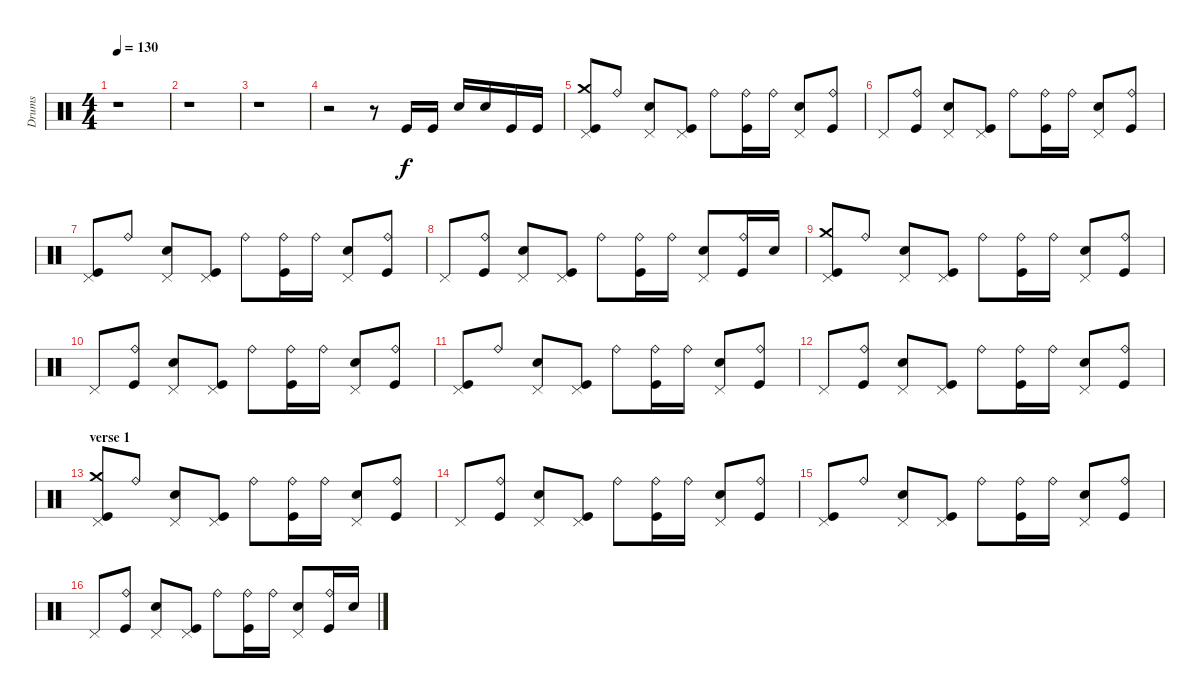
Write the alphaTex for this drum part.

\track ("Drums" "Drums") {instrument percussion}
\staff {score}
\articulation defaults
\ts (4 4)
\tempo 130
\clef neutral
\ks c
r.1{dy f} |
r.1 |
r.1 |
r.2 r.8 "Kick (hit)".16 "Kick (hit)".16 "Electric Snare (hit)".16 "Electric Snare (hit)".16 "Kick (hit)".16 "Kick (hit)".16 |
("Kick (hit)" "Crash medium (hit)" "Pedal Hi-Hat (hit)").8 "Ride (bell)".8 ("Electric Snare (hit)" "Pedal Hi-Hat (hit)").8 ("Kick (hit)" "Pedal Hi-Hat (hit)").8 "Ride (bell)".8 ("Kick (hit)" "Ride (bell)").16 "Ride (bell)".16 ("Electric Snare (hit)" "Pedal Hi-Hat (hit)").8 ("Kick (hit)" "Ride (bell)").8 |
"Pedal Hi-Hat (hit)".8 ("Kick (hit)" "Ride (bell)").8 ("Electric Snare (hit)" "Pedal Hi-Hat (hit)").8 ("Kick (hit)" "Pedal Hi-Hat (hit)").8 "Ride (bell)".8 ("Kick (hit)" "Ride (bell)").16 "Ride (bell)".16 ("Electric Snare (hit)" "Pedal Hi-Hat (hit)").8 ("Kick (hit)" "Ride (bell)").8 |
("Kick (hit)" "Pedal Hi-Hat (hit)").8 "Ride (bell)".8 ("Electric Snare (hit)" "Pedal Hi-Hat (hit)").8 ("Kick (hit)" "Pedal Hi-Hat (hit)").8 "Ride (bell)".8 ("Kick (hit)" "Ride (bell)").16 "Ride (bell)".16 ("Electric Snare (hit)" "Pedal Hi-Hat (hit)").8 ("Kick (hit)" "Ride (bell)").8 |
"Pedal Hi-Hat (hit)".8 ("Kick (hit)" "Ride (bell)").8 ("Electric Snare (hit)" "Pedal Hi-Hat (hit)").8 ("Kick (hit)" "Pedal Hi-Hat (hit)").8 "Ride (bell)".8 ("Kick (hit)" "Ride (bell)").16 "Ride (bell)".16 ("Electric Snare (hit)" "Pedal Hi-Hat (hit)").8 ("Kick (hit)" "Ride (bell)").16 "Electric Snare (hit)".16 |
("Kick (hit)" "Crash medium (hit)" "Pedal Hi-Hat (hit)").8 "Ride (bell)".8 ("Electric Snare (hit)" "Pedal Hi-Hat (hit)").8 ("Kick (hit)" "Pedal Hi-Hat (hit)").8 "Ride (bell)".8 ("Kick (hit)" "Ride (bell)").16 "Ride (bell)".16 ("Electric Snare (hit)" "Pedal Hi-Hat (hit)").8 ("Kick (hit)" "Ride (bell)").8 |
"Pedal Hi-Hat (hit)".8 ("Kick (hit)" "Ride (bell)").8 ("Electric Snare (hit)" "Pedal Hi-Hat (hit)").8 ("Kick (hit)" "Pedal Hi-Hat (hit)").8 "Ride (bell)".8 ("Kick (hit)" "Ride (bell)").16 "Ride (bell)".16 ("Electric Snare (hit)" "Pedal Hi-Hat (hit)").8 ("Kick (hit)" "Ride (bell)").8 |
("Kick (hit)" "Pedal Hi-Hat (hit)").8 "Ride (bell)".8 ("Electric Snare (hit)" "Pedal Hi-Hat (hit)").8 ("Kick (hit)" "Pedal Hi-Hat (hit)").8 "Ride (bell)".8 ("Kick (hit)" "Ride (bell)").16 "Ride (bell)".16 ("Electric Snare (hit)" "Pedal Hi-Hat (hit)").8 ("Kick (hit)" "Ride (bell)").8 |
"Pedal Hi-Hat (hit)".8 ("Kick (hit)" "Ride (bell)").8 ("Electric Snare (hit)" "Pedal Hi-Hat (hit)").8 ("Kick (hit)" "Pedal Hi-Hat (hit)").8 "Ride (bell)".8 ("Kick (hit)" "Ride (bell)").16 "Ride (bell)".16 ("Electric Snare (hit)" "Pedal Hi-Hat (hit)").8 ("Kick (hit)" "Ride (bell)").8 |
\section ("" "verse 1")
("Kick (hit)" "Crash medium (hit)" "Pedal Hi-Hat (hit)").8 "Ride (bell)".8 ("Electric Snare (hit)" "Pedal Hi-Hat (hit)").8 ("Kick (hit)" "Pedal Hi-Hat (hit)").8 "Ride (bell)".8 ("Kick (hit)" "Ride (bell)").16 "Ride (bell)".16 ("Electric Snare (hit)" "Pedal Hi-Hat (hit)").8 ("Kick (hit)" "Ride (bell)").8 |
"Pedal Hi-Hat (hit)".8 ("Kick (hit)" "Ride (bell)").8 ("Electric Snare (hit)" "Pedal Hi-Hat (hit)").8 ("Kick (hit)" "Pedal Hi-Hat (hit)").8 "Ride (bell)".8 ("Kick (hit)" "Ride (bell)").16 "Ride (bell)".16 ("Electric Snare (hit)" "Pedal Hi-Hat (hit)").8 ("Kick (hit)" "Ride (bell)").8 |
("Kick (hit)" "Pedal Hi-Hat (hit)").8 "Ride (bell)".8 ("Electric Snare (hit)" "Pedal Hi-Hat (hit)").8 ("Kick (hit)" "Pedal Hi-Hat (hit)").8 "Ride (bell)".8 ("Kick (hit)" "Ride (bell)").16 "Ride (bell)".16 ("Electric Snare (hit)" "Pedal Hi-Hat (hit)").8 ("Kick (hit)" "Ride (bell)").8 |
"Pedal Hi-Hat (hit)".8 ("Kick (hit)" "Ride (bell)").8 ("Electric Snare (hit)" "Pedal Hi-Hat (hit)").8 ("Kick (hit)" "Pedal Hi-Hat (hit)").8 "Ride (bell)".8 ("Kick (hit)" "Ride (bell)").16 "Ride (bell)".16 ("Electric Snare (hit)" "Pedal Hi-Hat (hit)").8 ("Kick (hit)" "Ride (bell)").16 "Electric Snare (hit)".16
